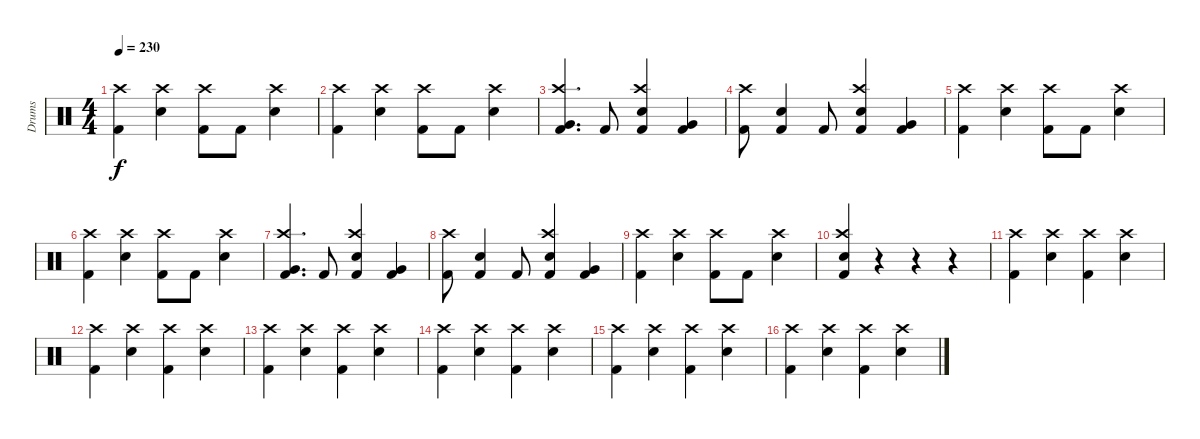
\track ("Drums" "Drums") {instrument percussion}
\staff {score}
\articulation defaults
\ts (4 4)
\tempo 230
\clef neutral
\ks c
("Kick (hit) 2" "Crash high (hit)").4{dy f} ("Snare (hit) 2" "Crash high (hit)").4 ("Kick (hit) 2" "Crash high (hit)").8 "Kick (hit) 2".8 ("Snare (hit) 2" "Crash high (hit)").4 |
("Kick (hit) 2" "Crash high (hit)").4 ("Snare (hit) 2" "Crash high (hit)").4 ("Kick (hit) 2" "Crash high (hit)").8 "Kick (hit) 2".8 ("Snare (hit) 2" "Crash high (hit)").4 |
("Very Low Tom (hit)" "Kick (hit) 2" "Crash high (hit)").4{d} "Kick (hit) 2".8 ("Snare (hit) 2" "Kick (hit) 2" "Crash high (hit)").4 ("Very Low Tom (hit)" "Kick (hit) 2").4 |
("Kick (hit) 2" "Crash high (hit)").8 ("Snare (hit) 2" "Kick (hit) 2").4 "Kick (hit) 2".8 ("Snare (hit) 2" "Kick (hit) 2" "Crash high (hit)").4 ("Very Low Tom (hit)" "Kick (hit) 2").4 |
("Kick (hit) 2" "Crash high (hit)").4 ("Snare (hit) 2" "Crash high (hit)").4 ("Kick (hit) 2" "Crash high (hit)").8 "Kick (hit) 2".8 ("Snare (hit) 2" "Crash high (hit)").4 |
("Kick (hit) 2" "Crash high (hit)").4 ("Snare (hit) 2" "Crash high (hit)").4 ("Kick (hit) 2" "Crash high (hit)").8 "Kick (hit) 2".8 ("Snare (hit) 2" "Crash high (hit)").4 |
("Very Low Tom (hit)" "Kick (hit) 2" "Crash high (hit)").4{d} "Kick (hit) 2".8 ("Snare (hit) 2" "Kick (hit) 2" "Crash high (hit)").4 ("Very Low Tom (hit)" "Kick (hit) 2").4 |
("Kick (hit) 2" "Crash high (hit)").8 ("Snare (hit) 2" "Kick (hit) 2").4 "Kick (hit) 2".8 ("Snare (hit) 2" "Kick (hit) 2" "Crash high (hit)").4 ("Very Low Tom (hit)" "Kick (hit) 2").4 |
("Kick (hit) 2" "Crash high (hit)").4 ("Snare (hit) 2" "Crash high (hit)").4 ("Kick (hit) 2" "Crash high (hit)").8 "Kick (hit) 2".8 ("Snare (hit) 2" "Crash high (hit)").4 |
("Snare (hit) 2" "Kick (hit) 2" "Crash high (hit)").4 r.4 r.4 r.4 |
("Kick (hit) 2" "Crash high (hit)").4 ("Snare (hit) 2" "Crash high (hit)").4 ("Kick (hit) 2" "Crash high (hit)").4 ("Snare (hit) 2" "Crash high (hit)").4 |
("Kick (hit) 2" "Crash high (hit)").4 ("Snare (hit) 2" "Crash high (hit)").4 ("Kick (hit) 2" "Crash high (hit)").4 ("Snare (hit) 2" "Crash high (hit)").4 |
("Kick (hit) 2" "Crash high (hit)").4 ("Snare (hit) 2" "Crash high (hit)").4 ("Kick (hit) 2" "Crash high (hit)").4 ("Snare (hit) 2" "Crash high (hit)").4 |
("Kick (hit) 2" "Crash high (hit)").4 ("Snare (hit) 2" "Crash high (hit)").4 ("Kick (hit) 2" "Crash high (hit)").4 ("Snare (hit) 2" "Crash high (hit)").4 |
("Kick (hit) 2" "Crash high (hit)").4 ("Snare (hit) 2" "Crash high (hit)").4 ("Kick (hit) 2" "Crash high (hit)").4 ("Snare (hit) 2" "Crash high (hit)").4 |
("Kick (hit) 2" "Crash high (hit)").4 ("Snare (hit) 2" "Crash high (hit)").4 ("Kick (hit) 2" "Crash high (hit)").4 ("Snare (hit) 2" "Crash high (hit)").4
